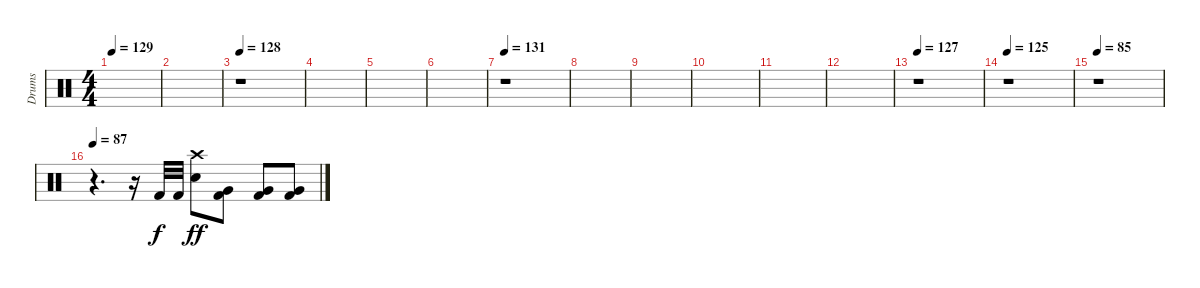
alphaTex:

\track ("Drums" "Drums") {instrument percussion}
\staff {score}
\articulation defaults
\ts (4 4)
\tempo 129
\clef neutral
\ks c
|
|
\tempo 128
r.1 |
|
|
|
\tempo 131
r.1 |
|
|
|
|
|
\tempo 127
r.1 |
\tempo 125
r.1 |
\tempo 85
r.1 |
\tempo 87
r.4{d} r.16 "Kick (hit) 2".32{dy f} "Kick (hit) 2".32 ("Crash high (hit)" "Electric Snare (hit)").8{dy ff} ("Very Low Tom (hit)" "Kick (hit) 2").8 ("Very Low Tom (hit)" "Kick (hit) 2").8 ("Very Low Tom (hit)" "Kick (hit) 2").8
